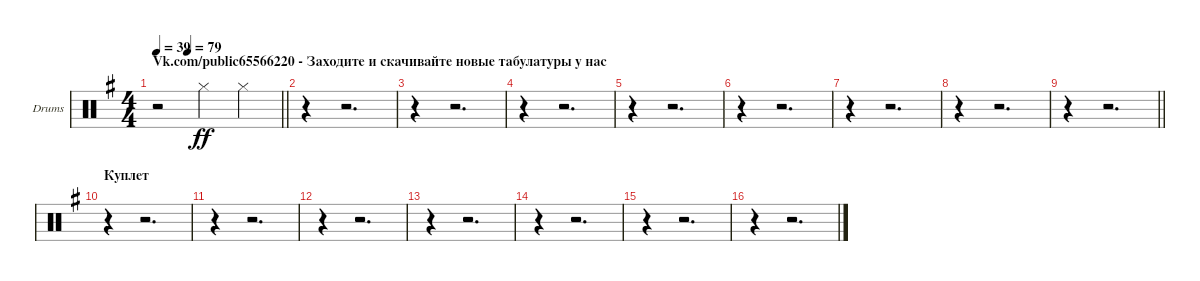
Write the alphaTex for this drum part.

\bracketExtendMode groupsimilarinstruments
\firstSystemTrackNameOrientation horizontal
\otherSystemsTrackNameOrientation horizontal
\track ("Александр Манякин" "Drums") {instrument percussion}
\staff {score}
\articulation defaults
\ts (4 4)
\beaming (8 2 2 2 2)
\section ("" "Vk.com/public65566220 - Заходите и скачивайте новые табулатуры у нас")
\tempo 39
\tempo (79 0.24875)
\clef neutral
\barLineRight lightlight
\ks eminor
r.2{dy ff} "Hi-Hat (closed)".4 "Hi-Hat (closed)".4 |
r.4 r.2{d} |
r.4 r.2{d} |
r.4 r.2{d} |
r.4 r.2{d} |
r.4 r.2{d} |
r.4 r.2{d} |
r.4 r.2{d} |
\barLineRight lightlight
r.4 r.2{d} |
\section ("" "Куплет")
r.4 r.2{d} |
r.4 r.2{d} |
r.4 r.2{d} |
r.4 r.2{d} |
r.4 r.2{d} |
r.4 r.2{d} |
r.4 r.2{d}
